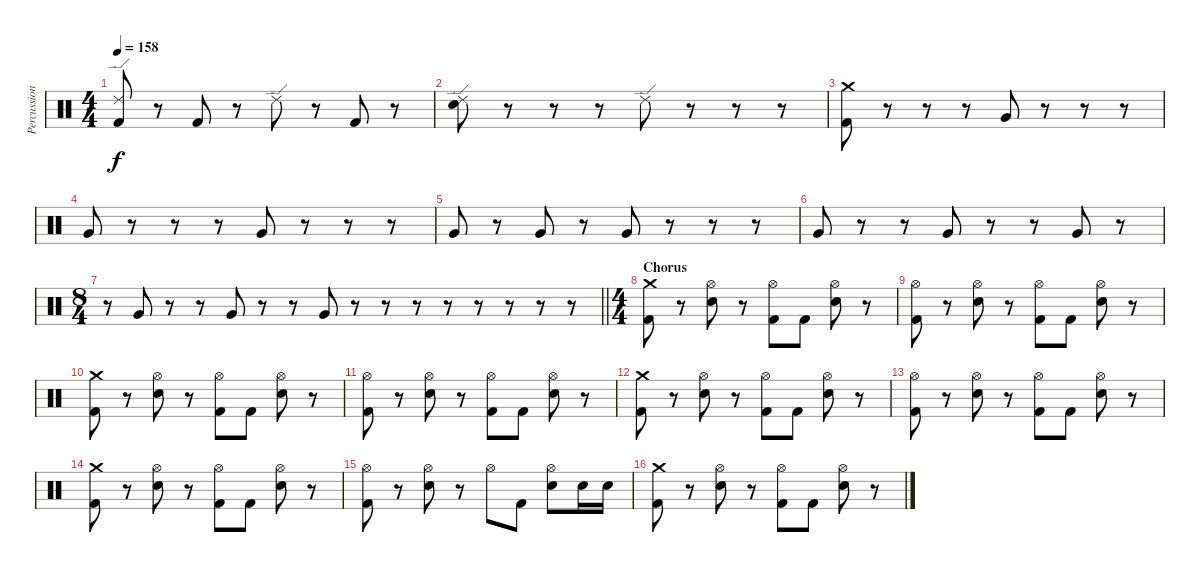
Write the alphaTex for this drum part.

\track ("Percussion" "Percussion") {instrument percussion}
\staff {score}
\articulation defaults
\ts (4 4)
\tempo 158
\clef neutral
\ks c
("Kick (hit) 2" "Ride (edge) 2").8{dy f} r.8 "Kick (hit) 2".8 r.8 "Ride (edge) 2".8 r.8 "Kick (hit) 2".8 r.8 |
("Ride (edge) 2" "Electric Snare (hit)").8 r.8 r.8 r.8 "Ride (edge) 2".8 r.8 r.8 r.8 |
("Crash medium (hit)" "Kick (hit) 2").8 r.8 r.8 r.8 "Very Low Tom (hit)".8 r.8 r.8 r.8 |
"Very Low Tom (hit)".8 r.8 r.8 r.8 "Very Low Tom (hit)".8 r.8 r.8 r.8 |
"Very Low Tom (hit)".8 r.8 "Very Low Tom (hit)".8 r.8 "Very Low Tom (hit)".8 r.8 r.8 r.8 |
"Very Low Tom (hit)".8 r.8 r.8 "Very Low Tom (hit)".8 r.8 r.8 "Very Low Tom (hit)".8 r.8 |
\ts (8 4)
\barLineRight lightlight
r.8 "Very Low Tom (hit)".8 r.8 r.8 "Very Low Tom (hit)".8 r.8 r.8 "Very Low Tom (hit)".8 r.8 r.8 r.8 r.8 r.8 r.8 r.8 r.8 |
\ts (4 4)
\section ("" "Chorus")
("Crash medium (hit)" "Kick (hit) 2").8 r.8 ("Hi-Hat (open)" "Electric Snare (hit)").8 r.8 ("Hi-Hat (open)" "Kick (hit) 2").8 "Kick (hit) 2".8 ("Hi-Hat (open)" "Electric Snare (hit)").8 r.8 |
("Hi-Hat (open)" "Kick (hit) 2").8 r.8 ("Hi-Hat (open)" "Electric Snare (hit)").8 r.8 ("Hi-Hat (open)" "Kick (hit) 2").8 "Kick (hit) 2".8 ("Hi-Hat (open)" "Electric Snare (hit)").8 r.8 |
("Crash medium (hit)" "Kick (hit) 2").8 r.8 ("Hi-Hat (open)" "Electric Snare (hit)").8 r.8 ("Hi-Hat (open)" "Kick (hit) 2").8 "Kick (hit) 2".8 ("Hi-Hat (open)" "Electric Snare (hit)").8 r.8 |
("Hi-Hat (open)" "Kick (hit) 2").8 r.8 ("Hi-Hat (open)" "Electric Snare (hit)").8 r.8 ("Hi-Hat (open)" "Kick (hit) 2").8 "Kick (hit) 2".8 ("Hi-Hat (open)" "Electric Snare (hit)").8 r.8 |
("Crash medium (hit)" "Kick (hit) 2").8 r.8 ("Hi-Hat (open)" "Electric Snare (hit)").8 r.8 ("Hi-Hat (open)" "Kick (hit) 2").8 "Kick (hit) 2".8 ("Hi-Hat (open)" "Electric Snare (hit)").8 r.8 |
("Hi-Hat (open)" "Kick (hit) 2").8 r.8 ("Hi-Hat (open)" "Electric Snare (hit)").8 r.8 ("Hi-Hat (open)" "Kick (hit) 2").8 "Kick (hit) 2".8 ("Hi-Hat (open)" "Electric Snare (hit)").8 r.8 |
("Crash medium (hit)" "Kick (hit) 2").8 r.8 ("Hi-Hat (open)" "Electric Snare (hit)").8 r.8 ("Hi-Hat (open)" "Kick (hit) 2").8 "Kick (hit) 2".8 ("Hi-Hat (open)" "Electric Snare (hit)").8 r.8 |
("Hi-Hat (open)" "Kick (hit) 2").8 r.8 ("Hi-Hat (open)" "Electric Snare (hit)").8 r.8 "Hi-Hat (open)".8 "Kick (hit) 2".8 ("Hi-Hat (open)" "Electric Snare (hit)").8 "Electric Snare (hit)".16 "Electric Snare (hit)".16 |
("Crash medium (hit)" "Kick (hit) 2").8 r.8 ("Hi-Hat (open)" "Electric Snare (hit)").8 r.8 ("Hi-Hat (open)" "Kick (hit) 2").8 "Kick (hit) 2".8 ("Hi-Hat (open)" "Electric Snare (hit)").8 r.8
